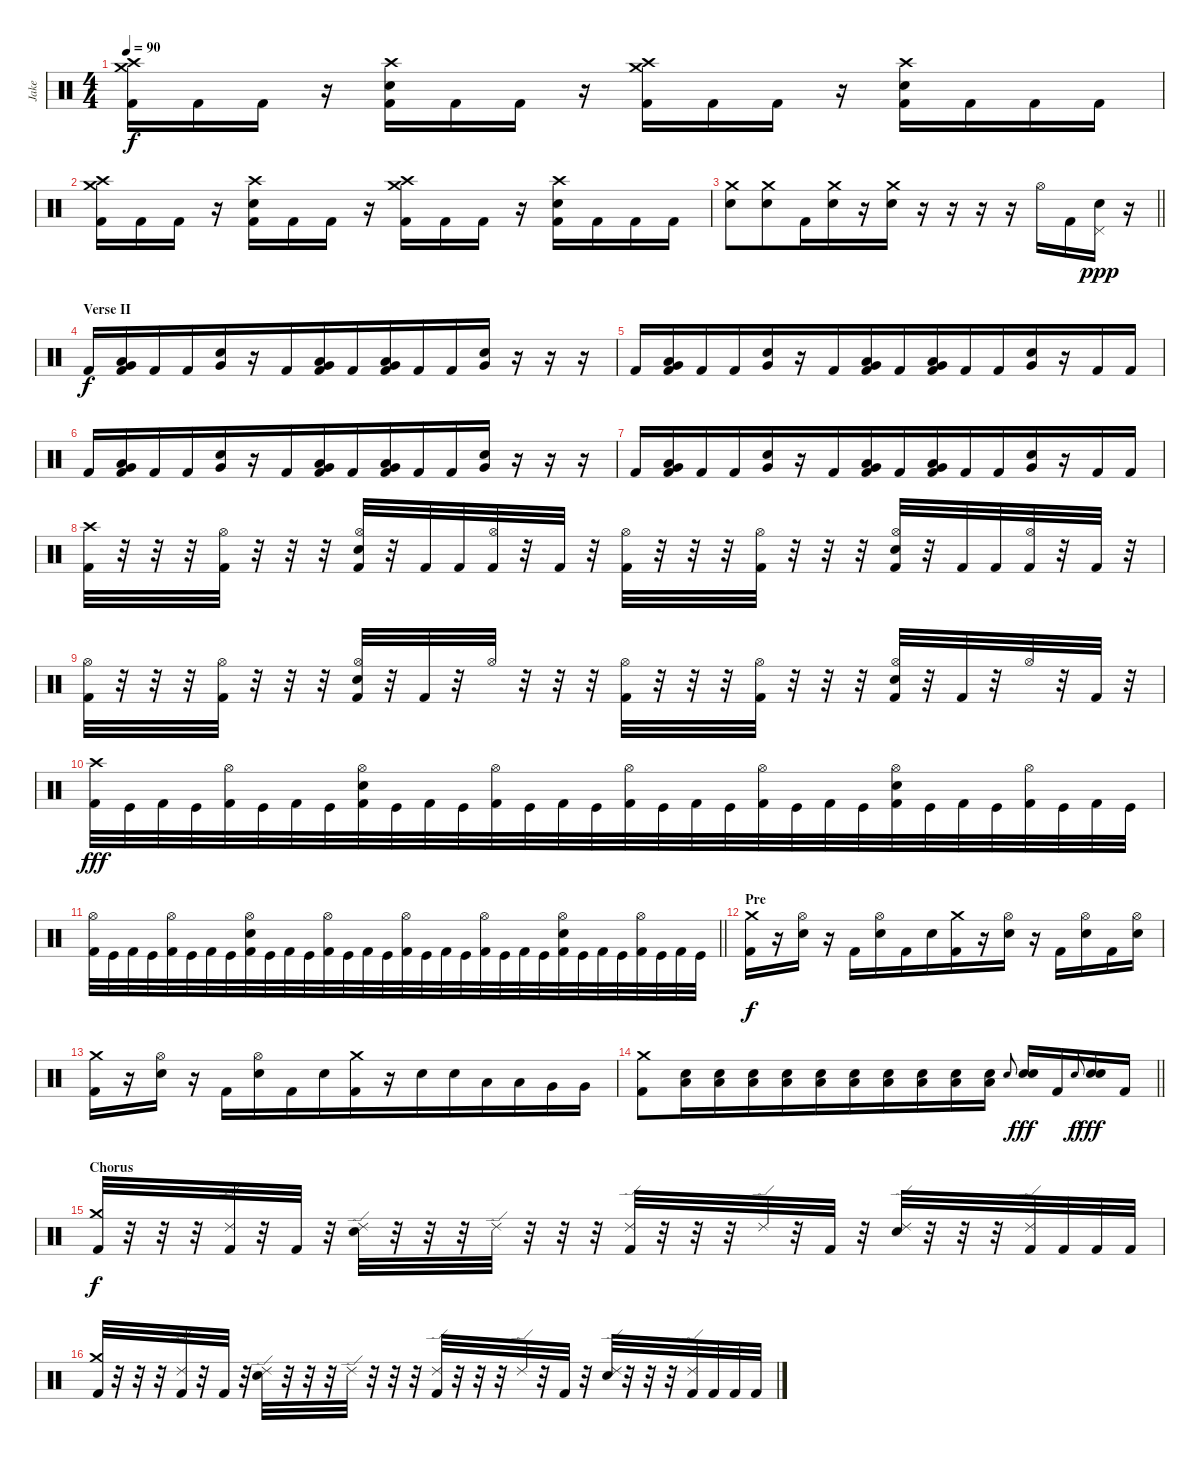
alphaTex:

\track ("Jake" "Jake") {instrument percussion}
\staff {score}
\articulation defaults
\ts (4 4)
\tempo 90
\clef neutral
\ks c
("Crash medium (hit)" "Crash high (hit)" "Kick (hit) 2").16{dy f beam merge} "Kick (hit) 2".16{beam merge} "Kick (hit) 2".16 r.16 ("Crash high (hit)" "Electric Snare (hit)" "Kick (hit) 2").16{beam merge} "Kick (hit) 2".16{beam merge} "Kick (hit) 2".16 r.16 ("Crash medium (hit)" "Crash high (hit)" "Kick (hit) 2").16{beam merge} "Kick (hit) 2".16{beam merge} "Kick (hit) 2".16 r.16 ("Crash high (hit)" "Electric Snare (hit)" "Kick (hit) 2").16{beam merge} "Kick (hit) 2".16{beam merge} "Kick (hit) 2".16{beam merge} "Kick (hit) 2".16 |
("Crash medium (hit)" "Crash high (hit)" "Kick (hit) 2").16{beam merge} "Kick (hit) 2".16{beam merge} "Kick (hit) 2".16 r.16 ("Crash high (hit)" "Electric Snare (hit)" "Kick (hit) 2").16{beam merge} "Kick (hit) 2".16{beam merge} "Kick (hit) 2".16 r.16 ("Crash medium (hit)" "Crash high (hit)" "Kick (hit) 2").16{beam merge} "Kick (hit) 2".16{beam merge} "Kick (hit) 2".16 r.16 ("Crash high (hit)" "Electric Snare (hit)" "Kick (hit) 2").16{beam merge} "Kick (hit) 2".16{beam merge} "Kick (hit) 2".16{beam merge} "Kick (hit) 2".16 |
\barLineRight lightlight
("Crash medium (hit)" "Electric Snare (hit)").8{beam merge} ("Crash medium (hit)" "Electric Snare (hit)").8{beam merge} "Kick (hit) 2".16{beam merge} ("Crash medium (hit)" "Electric Snare (hit)").16 r.16 ("Crash medium (hit)" "Electric Snare (hit)").16 r.16 r.16 r.16 r.16 "Hi-Hat (open)".16{beam merge} "Kick (hit) 2".16{beam merge} ("Pedal Hi-Hat (hit)" "Electric Snare (hit)").16{dy ppp} r.16 |
\section ("" "Verse II")
"Kick (hit) 2".16{dy f beam Up beam merge} ("Low Tom (hit)" "Very Low Tom (hit)" "Kick (hit) 2").16{beam Up beam merge} "Kick (hit) 2".16{beam Up beam merge} "Kick (hit) 2".16{beam Up beam merge} ("Electric Snare (hit)" "Very Low Tom (hit)").16 r.16 "Kick (hit) 2".16{beam Up beam merge} ("Low Tom (hit)" "Very Low Tom (hit)" "Kick (hit) 2").16{beam Up beam merge} "Kick (hit) 2".16{beam Up beam merge} ("Very Low Tom (hit)" "Low Floor Tom (hit)" "Kick (hit) 2").16{beam Up beam merge} "Kick (hit) 2".16{beam Up beam merge} "Kick (hit) 2".16{beam Up beam merge} ("Electric Snare (hit)" "Very Low Tom (hit)").16 r.16 r.16 r.16 |
"Kick (hit) 2".16{beam Up beam merge} ("Low Tom (hit)" "Very Low Tom (hit)" "Kick (hit) 2").16{beam Up beam merge} "Kick (hit) 2".16{beam Up beam merge} "Kick (hit) 2".16{beam Up beam merge} ("Electric Snare (hit)" "Very Low Tom (hit)").16 r.16 "Kick (hit) 2".16{beam Up beam merge} ("Low Tom (hit)" "Very Low Tom (hit)" "Kick (hit) 2").16{beam Up beam merge} "Kick (hit) 2".16{beam Up beam merge} ("Very Low Tom (hit)" "Low Floor Tom (hit)" "Kick (hit) 2").16{beam Up beam merge} "Kick (hit) 2".16{beam Up beam merge} "Kick (hit) 2".16{beam Up beam merge} ("Electric Snare (hit)" "Very Low Tom (hit)").16 r.16 "Kick (hit) 2".16{beam Up beam merge} "Kick (hit) 2".16{beam Up} |
"Kick (hit) 2".16{beam Up beam merge} ("Low Tom (hit)" "Very Low Tom (hit)" "Kick (hit) 2").16{beam Up beam merge} "Kick (hit) 2".16{beam Up beam merge} "Kick (hit) 2".16{beam Up beam merge} ("Electric Snare (hit)" "Very Low Tom (hit)").16 r.16 "Kick (hit) 2".16{beam Up beam merge} ("Low Tom (hit)" "Very Low Tom (hit)" "Kick (hit) 2").16{beam Up beam merge} "Kick (hit) 2".16{beam Up beam merge} ("Very Low Tom (hit)" "Low Floor Tom (hit)" "Kick (hit) 2").16{beam Up beam merge} "Kick (hit) 2".16{beam Up beam merge} "Kick (hit) 2".16{beam Up beam merge} ("Electric Snare (hit)" "Very Low Tom (hit)").16 r.16 r.16 r.16 |
"Kick (hit) 2".16{beam Up beam merge} ("Low Tom (hit)" "Very Low Tom (hit)" "Kick (hit) 2").16{beam Up beam merge} "Kick (hit) 2".16{beam Up beam merge} "Kick (hit) 2".16{beam Up beam merge} ("Electric Snare (hit)" "Very Low Tom (hit)").16 r.16 "Kick (hit) 2".16{beam Up beam merge} ("Low Tom (hit)" "Very Low Tom (hit)" "Kick (hit) 2").16{beam Up beam merge} "Kick (hit) 2".16{beam Up beam merge} ("Very Low Tom (hit)" "Low Floor Tom (hit)" "Kick (hit) 2").16{beam Up beam merge} "Kick (hit) 2".16{beam Up beam merge} "Kick (hit) 2".16{beam Up beam merge} ("Electric Snare (hit)" "Very Low Tom (hit)").16 r.16 "Kick (hit) 2".16{beam Up beam merge} "Kick (hit) 2".16{beam Up} |
("Crash high (hit)" "Kick (hit) 2").32 r.32 r.32 r.32 ("Hi-Hat (open)" "Kick (hit) 2").32 r.32 r.32 r.32 ("Hi-Hat (open)" "Electric Snare (hit)" "Kick (hit) 2").32 r.32 "Kick (hit) 2".32{beam merge} "Kick (hit) 2".32{beam merge} ("Hi-Hat (open)" "Kick (hit) 2").32 r.32 "Kick (hit) 2".32{beam Up} r.32 ("Hi-Hat (open)" "Kick (hit) 2").32 r.32 r.32 r.32 ("Hi-Hat (open)" "Kick (hit) 2").32 r.32 r.32 r.32 ("Hi-Hat (open)" "Electric Snare (hit)" "Kick (hit) 2").32 r.32 "Kick (hit) 2".32{beam merge} "Kick (hit) 2".32{beam merge} ("Hi-Hat (open)" "Kick (hit) 2").32 r.32 "Kick (hit) 2".32{beam Up} r.32 |
("Hi-Hat (open)" "Kick (hit) 2").32 r.32 r.32 r.32 ("Hi-Hat (open)" "Kick (hit) 2").32 r.32 r.32 r.32 ("Hi-Hat (open)" "Electric Snare (hit)" "Kick (hit) 2").32 r.32 "Kick (hit) 2".32{beam Up} r.32 "Hi-Hat (open)".32 r.32 r.32 r.32 ("Hi-Hat (open)" "Kick (hit) 2").32 r.32 r.32 r.32 ("Hi-Hat (open)" "Kick (hit) 2").32 r.32 r.32 r.32 ("Hi-Hat (open)" "Electric Snare (hit)" "Kick (hit) 2").32 r.32 "Kick (hit) 2".32{beam Up} r.32 "Hi-Hat (open)".32 r.32 "Kick (hit) 2".32{beam Up} r.32 |
("Crash high (hit)" "Kick (hit) 2").32{dy fff beam merge} "Kick (hit)".32{beam merge} "Kick (hit) 2".32{beam merge} "Kick (hit)".32{beam merge} ("Hi-Hat (open)" "Kick (hit) 2").32{beam merge} "Kick (hit)".32{beam merge} "Kick (hit) 2".32{beam merge} "Kick (hit)".32{beam merge} ("Hi-Hat (open)" "Electric Snare (hit)" "Kick (hit) 2").32{beam merge} "Kick (hit)".32{beam merge} "Kick (hit) 2".32{beam merge} "Kick (hit)".32{beam merge} ("Hi-Hat (open)" "Kick (hit) 2").32{beam merge} "Kick (hit)".32{beam merge} "Kick (hit) 2".32{beam merge} "Kick (hit)".32{beam merge} ("Hi-Hat (open)" "Kick (hit) 2").32{beam merge} "Kick (hit)".32{beam merge} "Kick (hit) 2".32{beam merge} "Kick (hit)".32{beam merge} ("Hi-Hat (open)" "Kick (hit) 2").32{beam merge} "Kick (hit)".32{beam merge} "Kick (hit) 2".32{beam merge} "Kick (hit)".32{beam merge} ("Hi-Hat (open)" "Electric Snare (hit)" "Kick (hit) 2").32{beam merge} "Kick (hit)".32{beam merge} "Kick (hit) 2".32{beam merge} "Kick (hit)".32{beam merge} ("Hi-Hat (open)" "Kick (hit) 2").32{beam merge} "Kick (hit)".32{beam merge} "Kick (hit) 2".32{beam merge} "Kick (hit)".32 |
\barLineRight lightlight
("Hi-Hat (open)" "Kick (hit) 2").32{beam merge} "Kick (hit)".32{beam merge} "Kick (hit) 2".32{beam merge} "Kick (hit)".32{beam merge} ("Hi-Hat (open)" "Kick (hit) 2").32{beam merge} "Kick (hit)".32{beam merge} "Kick (hit) 2".32{beam merge} "Kick (hit)".32{beam merge} ("Hi-Hat (open)" "Electric Snare (hit)" "Kick (hit) 2").32{beam merge} "Kick (hit)".32{beam merge} "Kick (hit) 2".32{beam merge} "Kick (hit)".32{beam merge} ("Hi-Hat (open)" "Kick (hit) 2").32{beam merge} "Kick (hit)".32{beam merge} "Kick (hit) 2".32{beam merge} "Kick (hit)".32{beam merge} ("Hi-Hat (open)" "Kick (hit) 2").32{beam merge} "Kick (hit)".32{beam merge} "Kick (hit) 2".32{beam merge} "Kick (hit)".32{beam merge} ("Hi-Hat (open)" "Kick (hit) 2").32{beam merge} "Kick (hit)".32{beam merge} "Kick (hit) 2".32{beam merge} "Kick (hit)".32{beam merge} ("Hi-Hat (open)" "Electric Snare (hit)" "Kick (hit) 2").32{beam merge} "Kick (hit)".32{beam merge} "Kick (hit) 2".32{beam merge} "Kick (hit)".32{beam merge} ("Hi-Hat (open)" "Kick (hit) 2").32{beam merge} "Kick (hit)".32{beam merge} "Kick (hit) 2".32{beam merge} "Kick (hit)".32 |
\section ("" "Pre")
("Crash medium (hit)" "Kick (hit) 2").16{dy f} r.16 ("Hi-Hat (open)" "Electric Snare (hit)").16 r.16 "Kick (hit) 2".16{beam merge} ("Hi-Hat (open)" "Electric Snare (hit)").16{beam merge} "Kick (hit) 2".16{beam merge} "Electric Snare (hit)".16{beam merge} ("Crash medium (hit)" "Kick (hit) 2").16 r.16 ("Hi-Hat (open)" "Electric Snare (hit)").16 r.16 "Kick (hit) 2".16{beam merge} ("Hi-Hat (open)" "Electric Snare (hit)").16{beam merge} "Kick (hit) 2".16{beam merge} ("Hi-Hat (open)" "Electric Snare (hit)").16 |
("Crash medium (hit)" "Kick (hit) 2").16 r.16 ("Hi-Hat (open)" "Electric Snare (hit)").16 r.16 "Kick (hit) 2".16{beam merge} ("Hi-Hat (open)" "Electric Snare (hit)").16{beam merge} "Kick (hit) 2".16{beam merge} "Electric Snare (hit)".16{beam merge} ("Crash medium (hit)" "Kick (hit) 2").16 r.16 "Electric Snare (hit)".16{beam merge} "Electric Snare (hit)".16{beam merge} "Low Tom (hit)".16{beam merge} "Low Tom (hit)".16{beam merge} "Very Low Tom (hit)".16{beam merge} "Very Low Tom (hit)".16 |
\barLineRight lightlight
("Crash medium (hit)" "Kick (hit) 2").8{beam merge} ("Low Floor Tom (hit)" "Electric Snare (hit)").16{beam merge} ("Low Floor Tom (hit)" "Electric Snare (hit)").16{beam merge} ("Low Floor Tom (hit)" "Electric Snare (hit)").16{beam merge} ("Low Floor Tom (hit)" "Electric Snare (hit)").16{beam merge} ("Low Floor Tom (hit)" "Electric Snare (hit)").16{beam merge} ("Low Floor Tom (hit)" "Electric Snare (hit)").16{beam merge} ("Low Floor Tom (hit)" "Electric Snare (hit)").16{beam merge} ("Low Floor Tom (hit)" "Electric Snare (hit)").16{beam merge} ("Low Floor Tom (hit)" "Electric Snare (hit)").16{beam merge} ("Low Floor Tom (hit)" "Electric Snare (hit)").16 "Electric Snare (hit)".8{gr onbeat beam merge} ("Electric Snare (hit)" "Electric Snare (hit)").16{dy fff beam Up beam merge} "Kick (hit) 2".16{beam Up} "Electric Snare (hit)".8{gr onbeat dy f beam merge} ("Electric Snare (hit)" "Electric Snare (hit)").16{dy fff beam Up beam merge} "Kick (hit) 2".16{beam Up} |
\section ("" "Chorus")
("Crash medium (hit)" "Kick (hit) 2").32{dy f} r.32 r.32 r.32 ("Ride (edge) 2" "Kick (hit) 2").32 r.32 "Kick (hit) 2".32{beam Up} r.32 ("Ride (edge) 2" "Electric Snare (hit)").32 r.32 r.32 r.32 "Ride (edge) 2".32 r.32 r.32 r.32 ("Ride (edge) 2" "Kick (hit) 2").32 r.32 r.32 r.32 "Ride (edge) 2".32 r.32 "Kick (hit) 2".32{beam Up} r.32 ("Ride (edge) 2" "Electric Snare (hit)").32 r.32 r.32 r.32 ("Ride (edge) 2" "Kick (hit) 2").32{beam merge} "Kick (hit) 2".32{beam merge} "Kick (hit) 2".32{beam merge} "Kick (hit) 2".32 |
("Crash medium (hit)" "Kick (hit) 2").32 r.32 r.32 r.32 ("Ride (edge) 2" "Kick (hit) 2").32 r.32 "Kick (hit) 2".32{beam Up} r.32 ("Ride (edge) 2" "Electric Snare (hit)").32 r.32 r.32 r.32 "Ride (edge) 2".32 r.32 r.32 r.32 ("Ride (edge) 2" "Kick (hit) 2").32 r.32 r.32 r.32 "Ride (edge) 2".32 r.32 "Kick (hit) 2".32{beam Up} r.32 ("Ride (edge) 2" "Electric Snare (hit)").32 r.32 r.32 r.32 ("Ride (edge) 2" "Kick (hit) 2").32{beam merge} "Kick (hit) 2".32{beam merge} "Kick (hit) 2".32{beam merge} "Kick (hit) 2".32
